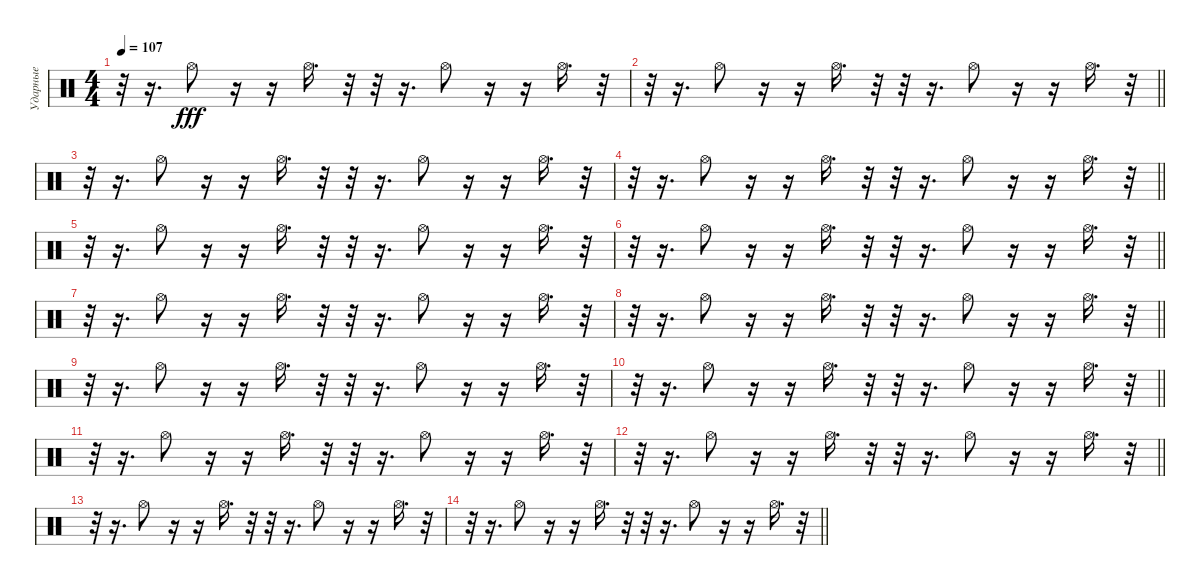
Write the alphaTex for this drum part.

\track ("Ударные" "Ударные") {solo instrument percussion}
\staff {score}
\articulation defaults
\ts (4 4)
\tempo 107
\clef neutral
\ks c
r.32{dy fff} r.16{d} "Hi-Hat (open)".8 r.16 r.16 "Hi-Hat (open)".16{d} r.32 r.32 r.16{d} "Hi-Hat (open)".8 r.16 r.16 "Hi-Hat (open)".16{d} r.32 |
\barLineRight lightlight
r.32 r.16{d} "Hi-Hat (open)".8 r.16 r.16 "Hi-Hat (open)".16{d} r.32 r.32 r.16{d} "Hi-Hat (open)".8 r.16 r.16 "Hi-Hat (open)".16{d} r.32 |
r.32 r.16{d} "Hi-Hat (open)".8 r.16 r.16 "Hi-Hat (open)".16{d} r.32 r.32 r.16{d} "Hi-Hat (open)".8 r.16 r.16 "Hi-Hat (open)".16{d} r.32 |
\barLineRight lightlight
r.32 r.16{d} "Hi-Hat (open)".8 r.16 r.16 "Hi-Hat (open)".16{d} r.32 r.32 r.16{d} "Hi-Hat (open)".8 r.16 r.16 "Hi-Hat (open)".16{d} r.32 |
r.32 r.16{d} "Hi-Hat (open)".8 r.16 r.16 "Hi-Hat (open)".16{d} r.32 r.32 r.16{d} "Hi-Hat (open)".8 r.16 r.16 "Hi-Hat (open)".16{d} r.32 |
\barLineRight lightlight
r.32 r.16{d} "Hi-Hat (open)".8 r.16 r.16 "Hi-Hat (open)".16{d} r.32 r.32 r.16{d} "Hi-Hat (open)".8 r.16 r.16 "Hi-Hat (open)".16{d} r.32 |
r.32 r.16{d} "Hi-Hat (open)".8 r.16 r.16 "Hi-Hat (open)".16{d} r.32 r.32 r.16{d} "Hi-Hat (open)".8 r.16 r.16 "Hi-Hat (open)".16{d} r.32 |
\barLineRight lightlight
r.32 r.16{d} "Hi-Hat (open)".8 r.16 r.16 "Hi-Hat (open)".16{d} r.32 r.32 r.16{d} "Hi-Hat (open)".8 r.16 r.16 "Hi-Hat (open)".16{d} r.32 |
r.32 r.16{d} "Hi-Hat (open)".8 r.16 r.16 "Hi-Hat (open)".16{d} r.32 r.32 r.16{d} "Hi-Hat (open)".8 r.16 r.16 "Hi-Hat (open)".16{d} r.32 |
\barLineRight lightlight
r.32 r.16{d} "Hi-Hat (open)".8 r.16 r.16 "Hi-Hat (open)".16{d} r.32 r.32 r.16{d} "Hi-Hat (open)".8 r.16 r.16 "Hi-Hat (open)".16{d} r.32 |
r.32 r.16{d} "Hi-Hat (open)".8 r.16 r.16 "Hi-Hat (open)".16{d} r.32 r.32 r.16{d} "Hi-Hat (open)".8 r.16 r.16 "Hi-Hat (open)".16{d} r.32 |
\barLineRight lightlight
r.32 r.16{d} "Hi-Hat (open)".8 r.16 r.16 "Hi-Hat (open)".16{d} r.32 r.32 r.16{d} "Hi-Hat (open)".8 r.16 r.16 "Hi-Hat (open)".16{d} r.32 |
r.32 r.16{d} "Hi-Hat (open)".8 r.16 r.16 "Hi-Hat (open)".16{d} r.32 r.32 r.16{d} "Hi-Hat (open)".8 r.16 r.16 "Hi-Hat (open)".16{d} r.32 |
\barLineRight lightlight
r.32 r.16{d} "Hi-Hat (open)".8 r.16 r.16 "Hi-Hat (open)".16{d} r.32 r.32 r.16{d} "Hi-Hat (open)".8 r.16 r.16 "Hi-Hat (open)".16{d} r.32
